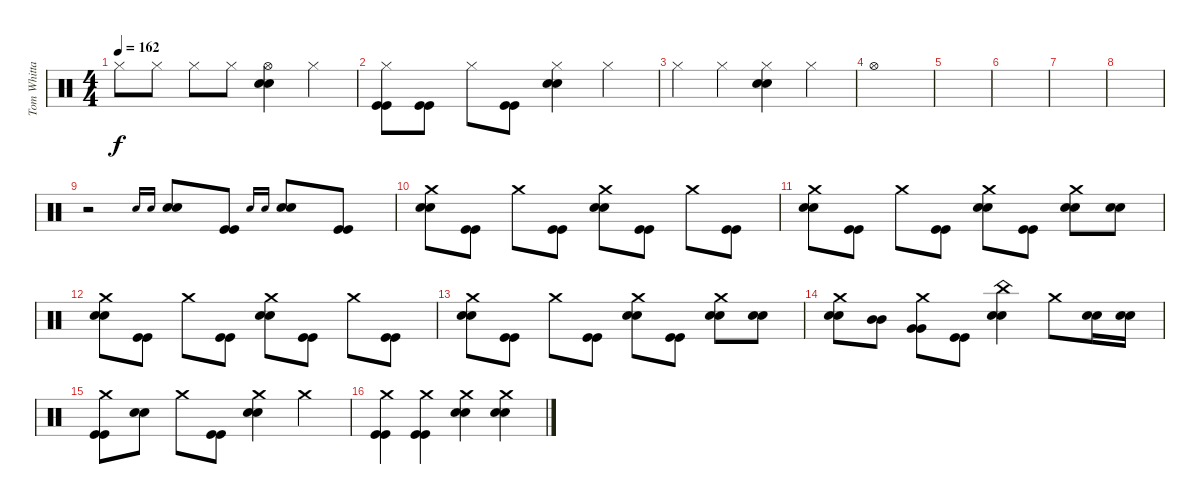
\track ("Tom Whittaker" "Tom Whitta") {instrument percussion}
\staff {score}
\articulation defaults
\ts (4 4)
\tempo 162
\clef neutral
\ks c "Hi-Hat (closed)".8{dy f} "Hi-Hat (closed)".8 "Hi-Hat (closed)".8 "Hi-Hat (closed)".8
("Hi-Hat (open)" "Electric Snare (hit)" "Electric Snare (hit)").4 "Hi-Hat (closed)".4 |
("Hi-Hat (closed)" "Kick (hit)" "Kick (hit)").8 ("Kick (hit)" "Kick (hit)").8 "Hi-Hat (closed)".8 ("Kick (hit)" "Kick (hit)").8 ("Hi-Hat (closed)" "Electric Snare (hit)" "Electric Snare (hit)").4 "Hi-Hat (closed)".4 |
"Hi-Hat (closed)".4 "Hi-Hat (closed)".4 ("Hi-Hat (closed)" "Electric Snare (hit)" "Electric Snare (hit)").4 "Hi-Hat (closed)".4 |
"Hi-Hat (open)".1 |
|
|
|
|
r.2 "Electric Snare (hit)".16{gr onbeat} "Electric Snare (hit)".16{gr onbeat} ("Electric Snare (hit)" "Electric Snare (hit)").8 ("Kick (hit)" "Kick (hit)").8 "Electric Snare (hit)".16{gr onbeat} "Electric Snare (hit)".16{gr onbeat} ("Electric Snare (hit)" "Electric Snare (hit)").8 ("Kick (hit)" "Kick (hit)").8 |
("Crash medium (hit)" "Electric Snare (hit)" "Electric Snare (hit)").8 ("Kick (hit)" "Kick (hit)").8 "Crash medium (hit)".8 ("Kick (hit)" "Kick (hit)").8 ("Crash medium (hit)" "Electric Snare (hit)" "Electric Snare (hit)").8 ("Kick (hit)" "Kick (hit)").8 "Crash medium (hit)".8 ("Kick (hit)" "Kick (hit)").8 |
("Crash medium (hit)" "Electric Snare (hit)" "Electric Snare (hit)").8 ("Kick (hit)" "Kick (hit)").8 "Crash medium (hit)".8 ("Kick (hit)" "Kick (hit)").8 ("Crash medium (hit)" "Electric Snare (hit)" "Electric Snare (hit)").8 ("Kick (hit)" "Kick (hit)").8 ("Crash medium (hit)" "Electric Snare (hit)" "Electric Snare (hit)").8 ("Electric Snare (hit)" "Electric Snare (hit)").8 |
("Crash medium (hit)" "Electric Snare (hit)" "Electric Snare (hit)").8 ("Kick (hit)" "Kick (hit)").8 "Crash medium (hit)".8 ("Kick (hit)" "Kick (hit)").8 ("Crash medium (hit)" "Electric Snare (hit)" "Electric Snare (hit)").8 ("Kick (hit)" "Kick (hit)").8 "Crash medium (hit)".8 ("Kick (hit)" "Kick (hit)").8 |
("Crash medium (hit)" "Electric Snare (hit)" "Electric Snare (hit)").8 ("Kick (hit)" "Kick (hit)").8 "Crash medium (hit)".8 ("Kick (hit)" "Kick (hit)").8 ("Crash medium (hit)" "Electric Snare (hit)" "Electric Snare (hit)").8 ("Kick (hit)" "Kick (hit)").8 ("Crash medium (hit)" "Electric Snare (hit)" "Electric Snare (hit)").8 ("Electric Snare (hit)" "Electric Snare (hit)").8 |
("Crash medium (hit)" "Electric Snare (hit)" "Electric Snare (hit)").8 ("Mid Tom (hit)" "Mid Tom (hit)").8 ("Crash medium (hit)" "Very Low Tom (hit)" "Very Low Tom (hit)").8 ("Kick (hit)" "Kick (hit)").8 ("China (hit)" "Electric Snare (hit)" "Electric Snare (hit)").4 "Crash medium (hit)".8 ("Electric Snare (hit)" "Electric Snare (hit)").16 ("Electric Snare (hit)" "Electric Snare (hit)").16 |
("Crash medium (hit)" "Kick (hit)" "Kick (hit)").8 ("Electric Snare (hit)" "Electric Snare (hit)").8 "Crash medium (hit)".8 ("Kick (hit)" "Kick (hit)").8 ("Crash medium (hit)" "Electric Snare (hit)" "Electric Snare (hit)").4 "Crash medium (hit)".4 |
("Crash medium (hit)" "Kick (hit)" "Kick (hit)").4 ("Crash medium (hit)" "Kick (hit)" "Kick (hit)").4 ("Crash medium (hit)" "Electric Snare (hit)" "Electric Snare (hit)").4 ("Crash medium (hit)" "Electric Snare (hit)" "Electric Snare (hit)").4
